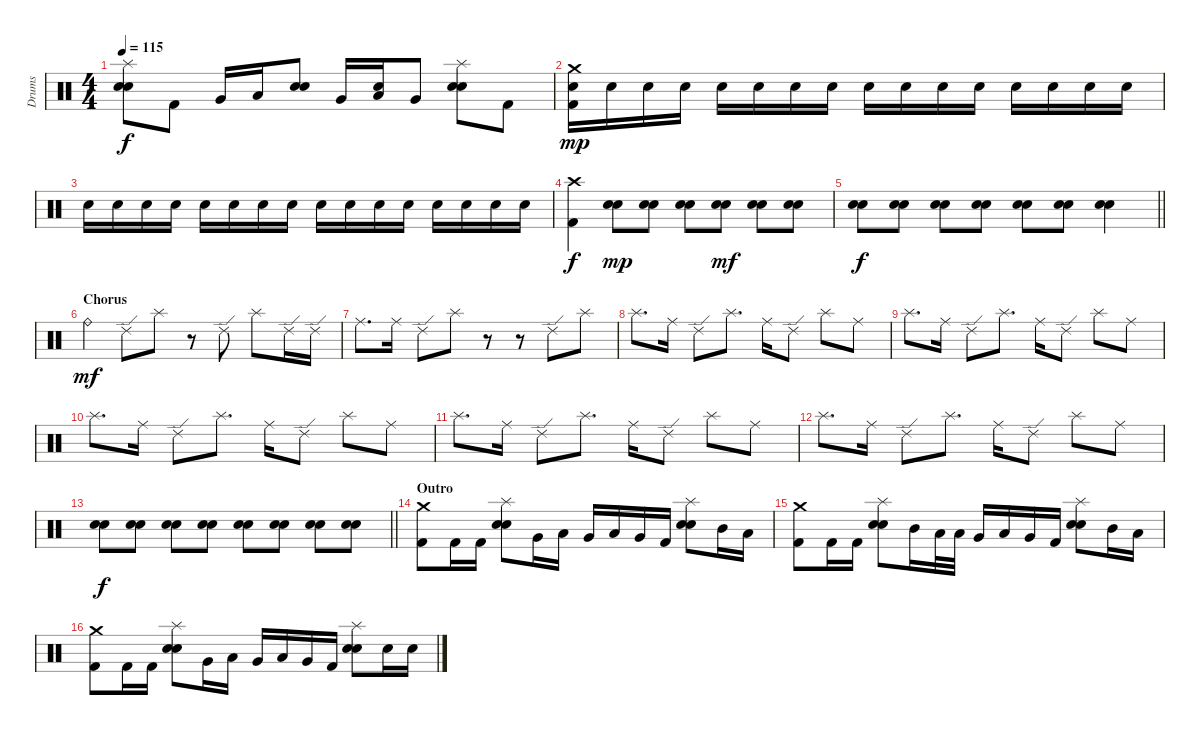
\track ("Drums" "Drums") {instrument percussion}
\staff {score}
\articulation defaults
\ts (4 4)
\tempo 115
\clef neutral
\ks c
("Splash (hit)" "Electric Snare (hit)" "Snare (hit) 2").8{dy f} "Kick (hit) 2".8 "Very Low Tom (hit)".16 "Low Tom (hit)".16 ("Electric Snare (hit)" "Snare (hit) 2").8 "Very Low Tom (hit)".16 ("Electric Snare (hit)" "Low Tom (hit)").16 "Very Low Tom (hit)".8 ("Splash (hit)" "Electric Snare (hit)" "Snare (hit) 2").8 "Kick (hit) 2".8 |
("Crash medium (hit)" "Electric Snare (hit)" "Kick (hit) 2").16{dy mp} "Electric Snare (hit)".16 "Electric Snare (hit)".16 "Electric Snare (hit)".16 "Electric Snare (hit)".16 "Electric Snare (hit)".16 "Electric Snare (hit)".16 "Electric Snare (hit)".16 "Electric Snare (hit)".16 "Electric Snare (hit)".16 "Electric Snare (hit)".16 "Electric Snare (hit)".16 "Electric Snare (hit)".16 "Electric Snare (hit)".16 "Electric Snare (hit)".16 "Electric Snare (hit)".16 |
"Electric Snare (hit)".16 "Electric Snare (hit)".16 "Electric Snare (hit)".16 "Electric Snare (hit)".16 "Electric Snare (hit)".16 "Electric Snare (hit)".16 "Electric Snare (hit)".16 "Electric Snare (hit)".16 "Electric Snare (hit)".16 "Electric Snare (hit)".16 "Electric Snare (hit)".16 "Electric Snare (hit)".16 "Electric Snare (hit)".16 "Electric Snare (hit)".16 "Electric Snare (hit)".16 "Electric Snare (hit)".16 |
("Crash high (hit)" "Kick (hit) 2").4{dy f} ("Electric Snare (hit)" "Snare (hit) 2").8{dy mp} ("Electric Snare (hit)" "Snare (hit) 2").8 ("Electric Snare (hit)" "Snare (hit) 2").8 ("Electric Snare (hit)" "Snare (hit) 2").8{dy mf} ("Electric Snare (hit)" "Snare (hit) 2").8 ("Electric Snare (hit)" "Snare (hit) 2").8 |
\barLineRight lightlight
("Electric Snare (hit)" "Snare (hit) 2").8{dy f} ("Electric Snare (hit)" "Snare (hit) 2").8 ("Electric Snare (hit)" "Snare (hit) 2").8 ("Electric Snare (hit)" "Snare (hit) 2").8 ("Electric Snare (hit)" "Snare (hit) 2").8 ("Electric Snare (hit)" "Snare (hit) 2").8 ("Electric Snare (hit)" "Snare (hit) 2").4 |
\section ("" "Chorus")
"Ride (bell)".4{dy mf} "Ride (edge) 2".8 "Splash (hit)".8 r.8 "Ride (edge) 2".8 "Splash (hit)".8 "Ride (edge) 2".16 "Ride (edge) 2".16 |
"Ride (middle)".8{d} "Ride (middle)".16 "Ride (edge) 2".8 "Splash (hit)".8 r.8 r.8 "Ride (edge) 2".8 "Splash (hit)".8 |
"Splash (hit)".8{d} "Ride (middle)".16 "Ride (edge) 2".8 "Splash (hit)".8{d} "Ride (middle)".16 "Ride (edge) 2".8 "Splash (hit)".8 "Ride (middle)".8 |
"Splash (hit)".8{d} "Ride (middle)".16 "Ride (edge) 2".8 "Splash (hit)".8{d} "Ride (middle)".16 "Ride (edge) 2".8 "Splash (hit)".8 "Ride (middle)".8 |
"Splash (hit)".8{d} "Ride (middle)".16 "Ride (edge) 2".8 "Splash (hit)".8{d} "Ride (middle)".16 "Ride (edge) 2".8 "Splash (hit)".8 "Ride (middle)".8 |
"Splash (hit)".8{d} "Ride (middle)".16 "Ride (edge) 2".8 "Splash (hit)".8{d} "Ride (middle)".16 "Ride (edge) 2".8 "Splash (hit)".8 "Ride (middle)".8 |
"Splash (hit)".8{d} "Ride (middle)".16 "Ride (edge) 2".8 "Splash (hit)".8{d} "Ride (middle)".16 "Ride (edge) 2".8 "Splash (hit)".8 "Ride (middle)".8 |
\barLineRight lightlight
("Electric Snare (hit)" "Snare (hit) 2").8{dy f} ("Electric Snare (hit)" "Snare (hit) 2").8 ("Electric Snare (hit)" "Snare (hit) 2").8 ("Electric Snare (hit)" "Snare (hit) 2").8 ("Electric Snare (hit)" "Snare (hit) 2").8 ("Electric Snare (hit)" "Snare (hit) 2").8 ("Electric Snare (hit)" "Snare (hit) 2").8 ("Electric Snare (hit)" "Snare (hit) 2").8 |
\section ("" "Outro")
("Crash medium (hit)" "Kick (hit) 2").8 "Kick (hit) 2".16 "Kick (hit) 2".16 ("Splash (hit)" "Electric Snare (hit)" "Snare (hit) 2").8 "Very Low Tom (hit)".16 "Low Tom (hit)".16 "Very Low Tom (hit)".16 "Low Tom (hit)".16 "Very Low Tom (hit)".16 "Kick (hit) 2".16 ("Splash (hit)" "Electric Snare (hit)" "Snare (hit) 2").8 "Mid Tom (hit)".16 "Low Tom (hit)".16 |
("Crash medium (hit)" "Kick (hit) 2").8 "Kick (hit) 2".16 "Kick (hit) 2".16 ("Splash (hit)" "Electric Snare (hit)" "Snare (hit) 2").8 "Mid Tom (hit)".16 "Low Tom (hit)".32 "Low Tom (hit)".32 "Very Low Tom (hit)".16 "Low Tom (hit)".16 "Very Low Tom (hit)".16 "Kick (hit) 2".16 ("Splash (hit)" "Electric Snare (hit)" "Snare (hit) 2").8 "Mid Tom (hit)".16 "Low Tom (hit)".16 |
("Crash medium (hit)" "Kick (hit) 2").8 "Kick (hit) 2".16 "Kick (hit) 2".16 ("Splash (hit)" "Electric Snare (hit)" "Snare (hit) 2").8 "Very Low Tom (hit)".16 "Low Tom (hit)".16 "Very Low Tom (hit)".16 "Low Tom (hit)".16 "Very Low Tom (hit)".16 "Kick (hit) 2".16 ("Splash (hit)" "Electric Snare (hit)" "Snare (hit) 2").8 "Electric Snare (hit)".16 "Electric Snare (hit)".16
